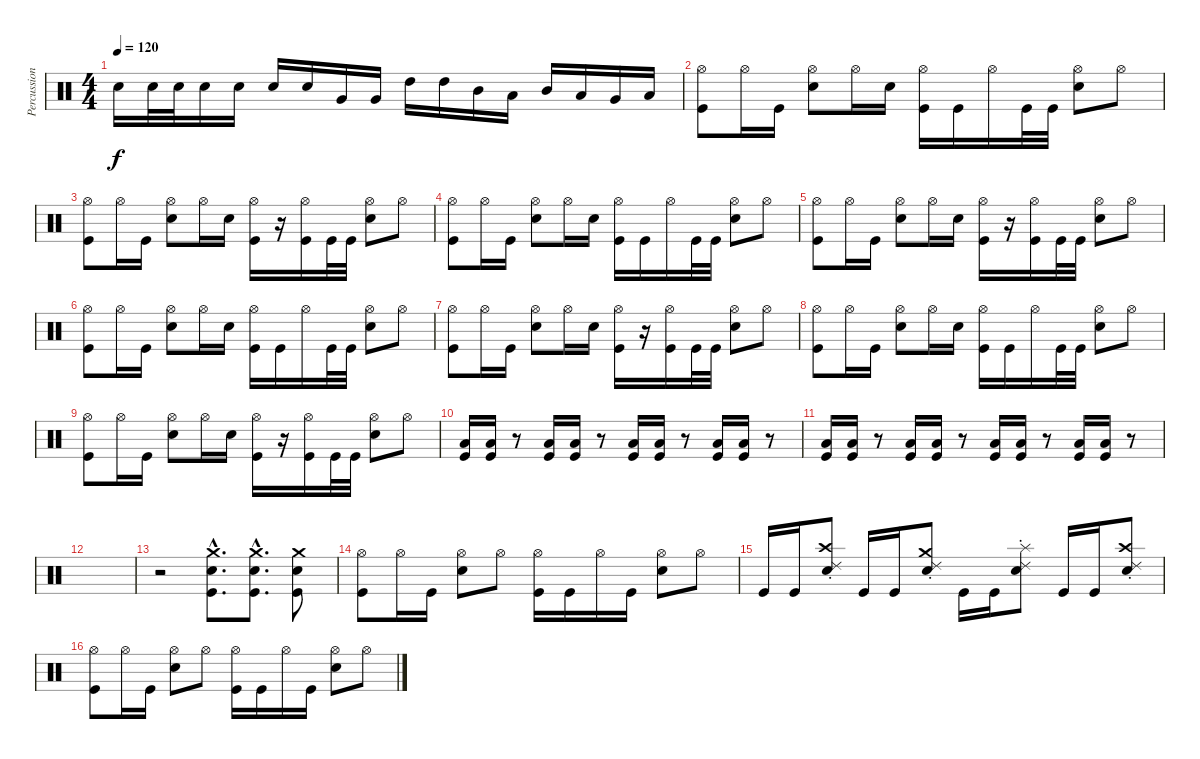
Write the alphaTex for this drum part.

\track ("Percussion" "Percussion") {instrument percussion}
\staff {score}
\articulation defaults
\ts (4 4)
\tempo 120
\clef neutral
\ks c "Electric Snare (hit)".16{dy f} "Electric Snare (hit)".32 "Electric Snare (hit)".32 "Electric Snare (hit)".16 "Electric Snare (hit)".16 "Electric Snare (hit)".16 "Electric Snare (hit)".16 "Very Low Tom (hit)".16 "Very Low Tom (hit)".16 "High Tom (hit)".16 "High Tom (hit)".16 "Mid Tom (hit)".16 "Low Tom (hit)".16 "Mid Tom (hit)".16 "Low Tom (hit)".16 "Very Low Tom (hit)".16 "Low Floor Tom (hit)".16
|
("Hi-Hat (open)" "Kick (hit)").8 "Hi-Hat (open)".16 "Kick (hit)".16 ("Hi-Hat (open)" "Snare (hit) 2").8 "Hi-Hat (open)".16 "Snare (hit) 2".16 ("Hi-Hat (open)" "Kick (hit)").16 "Kick (hit)".16 "Hi-Hat (open)".16 "Kick (hit)".32 "Kick (hit)".32 ("Hi-Hat (open)" "Snare (hit) 2").8 "Hi-Hat (open)".8 |
("Hi-Hat (open)" "Kick (hit)").8 "Hi-Hat (open)".16 "Kick (hit)".16 ("Hi-Hat (open)" "Snare (hit) 2").8 "Hi-Hat (open)".16 "Snare (hit) 2".16 ("Hi-Hat (open)" "Kick (hit)").16 r.16 ("Hi-Hat (open)" "Kick (hit)").16 "Kick (hit)".32 "Kick (hit)".32 ("Hi-Hat (open)" "Snare (hit) 2").8 "Hi-Hat (open)".8 |
("Hi-Hat (open)" "Kick (hit)").8 "Hi-Hat (open)".16 "Kick (hit)".16 ("Hi-Hat (open)" "Snare (hit) 2").8 "Hi-Hat (open)".16 "Snare (hit) 2".16 ("Hi-Hat (open)" "Kick (hit)").16 "Kick (hit)".16 "Hi-Hat (open)".16 "Kick (hit)".32 "Kick (hit)".32 ("Hi-Hat (open)" "Snare (hit) 2").8 "Hi-Hat (open)".8 |
("Hi-Hat (open)" "Kick (hit)").8 "Hi-Hat (open)".16 "Kick (hit)".16 ("Hi-Hat (open)" "Snare (hit) 2").8 "Hi-Hat (open)".16 "Snare (hit) 2".16 ("Hi-Hat (open)" "Kick (hit)").16 r.16 ("Hi-Hat (open)" "Kick (hit)").16 "Kick (hit)".32 "Kick (hit)".32 ("Hi-Hat (open)" "Snare (hit) 2").8 "Hi-Hat (open)".8 |
("Hi-Hat (open)" "Kick (hit)").8 "Hi-Hat (open)".16 "Kick (hit)".16 ("Hi-Hat (open)" "Snare (hit) 2").8 "Hi-Hat (open)".16 "Snare (hit) 2".16 ("Hi-Hat (open)" "Kick (hit)").16 "Kick (hit)".16 "Hi-Hat (open)".16 "Kick (hit)".32 "Kick (hit)".32 ("Hi-Hat (open)" "Snare (hit) 2").8 "Hi-Hat (open)".8 |
("Hi-Hat (open)" "Kick (hit)").8 "Hi-Hat (open)".16 "Kick (hit)".16 ("Hi-Hat (open)" "Snare (hit) 2").8 "Hi-Hat (open)".16 "Snare (hit) 2".16 ("Hi-Hat (open)" "Kick (hit)").16 r.16 ("Hi-Hat (open)" "Kick (hit)").16 "Kick (hit)".32 "Kick (hit)".32 ("Hi-Hat (open)" "Snare (hit) 2").8 "Hi-Hat (open)".8 |
("Hi-Hat (open)" "Kick (hit)").8 "Hi-Hat (open)".16 "Kick (hit)".16 ("Hi-Hat (open)" "Snare (hit) 2").8 "Hi-Hat (open)".16 "Snare (hit) 2".16 ("Hi-Hat (open)" "Kick (hit)").16 "Kick (hit)".16 "Hi-Hat (open)".16 "Kick (hit)".32 "Kick (hit)".32 ("Hi-Hat (open)" "Snare (hit) 2").8 "Hi-Hat (open)".8 |
("Hi-Hat (open)" "Kick (hit)").8 "Hi-Hat (open)".16 "Kick (hit)".16 ("Hi-Hat (open)" "Snare (hit) 2").8 "Hi-Hat (open)".16 "Snare (hit) 2".16 ("Hi-Hat (open)" "Kick (hit)").16 r.16 ("Hi-Hat (open)" "Kick (hit)").16 "Kick (hit)".32 "Kick (hit)".32 ("Hi-Hat (open)" "Snare (hit) 2").8 "Hi-Hat (open)".8 |
("Low Floor Tom (hit)" "Kick (hit)").16 ("Low Floor Tom (hit)" "Kick (hit)").16 r.8 ("Low Floor Tom (hit)" "Kick (hit)").16 ("Low Floor Tom (hit)" "Kick (hit)").16 r.8 ("Low Floor Tom (hit)" "Kick (hit)").16 ("Low Floor Tom (hit)" "Kick (hit)").16 r.8 ("Low Floor Tom (hit)" "Kick (hit)").16 ("Low Floor Tom (hit)" "Kick (hit)").16 r.8 |
("Low Floor Tom (hit)" "Kick (hit)").16 ("Low Floor Tom (hit)" "Kick (hit)").16 r.8 ("Low Floor Tom (hit)" "Kick (hit)").16 ("Low Floor Tom (hit)" "Kick (hit)").16 r.8 ("Low Floor Tom (hit)" "Kick (hit)").16 ("Low Floor Tom (hit)" "Kick (hit)").16 r.8 ("Low Floor Tom (hit)" "Kick (hit)").16 ("Low Floor Tom (hit)" "Kick (hit)").16 r.8 |
|
r.2 ("Crash medium (hit)"{hac} "Snare (hit) 2"{hac} "Kick (hit)"{hac}).8{d} ("Crash medium (hit)"{hac} "Snare (hit) 2"{hac} "Kick (hit)"{hac}).8{d} ("Crash medium (hit)" "Snare (hit) 2" "Kick (hit)").8 |
("Hi-Hat (open)" "Kick (hit)").8 "Hi-Hat (open)".16 "Kick (hit)".16 ("Hi-Hat (open)" "Snare (hit) 2").8 "Hi-Hat (open)".8 ("Hi-Hat (open)" "Kick (hit)").16 "Kick (hit)".16 "Hi-Hat (open)".16 "Kick (hit)".16 ("Hi-Hat (open)" "Snare (hit) 2").8 "Hi-Hat (open)".8 |
"Kick (hit)".16 "Kick (hit)".16 ("Crash high (hit)" "Snare (hit) 2" "Ride (choke) 2").8 "Kick (hit)".16 "Kick (hit)".16 ("Crash medium (hit)" "Snare (hit) 2" "Ride (choke) 2").8 "Kick (hit)".16 "Kick (hit)".16 ("Splash (hit)" "Snare (hit) 2" "Ride (choke) 2").8 "Kick (hit)".16 "Kick (hit)".16 ("Crash high (hit)" "Snare (hit) 2" "Ride (choke) 2").8 |
("Hi-Hat (open)" "Kick (hit)").8 "Hi-Hat (open)".16 "Kick (hit)".16 ("Hi-Hat (open)" "Snare (hit) 2").8 "Hi-Hat (open)".8 ("Hi-Hat (open)" "Kick (hit)").16 "Kick (hit)".16 "Hi-Hat (open)".16 "Kick (hit)".16 ("Hi-Hat (open)" "Snare (hit) 2").8 "Hi-Hat (open)".8
